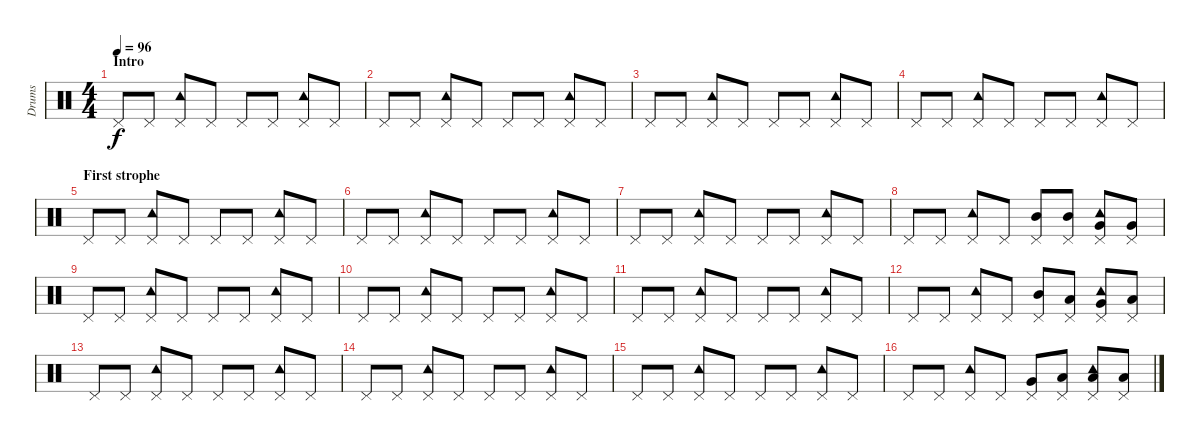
\track ("Drums" "Drums") {instrument percussion}
\staff {score}
\articulation defaults
\ts (4 4)
\section ("" "Intro")
\tempo 96
\clef neutral
\ks c "Pedal Hi-Hat (hit)".8{dy f} "Pedal Hi-Hat (hit)".8
("Pedal Hi-Hat (hit)" "Tambourine (hit)").8 "Pedal Hi-Hat (hit)".8 "Pedal Hi-Hat (hit)".8 "Pedal Hi-Hat (hit)".8 ("Pedal Hi-Hat (hit)" "Tambourine (hit)").8 "Pedal Hi-Hat (hit)".8 |
"Pedal Hi-Hat (hit)".8 "Pedal Hi-Hat (hit)".8 ("Pedal Hi-Hat (hit)" "Tambourine (hit)").8 "Pedal Hi-Hat (hit)".8 "Pedal Hi-Hat (hit)".8 "Pedal Hi-Hat (hit)".8 ("Pedal Hi-Hat (hit)" "Tambourine (hit)").8 "Pedal Hi-Hat (hit)".8 |
"Pedal Hi-Hat (hit)".8 "Pedal Hi-Hat (hit)".8 ("Pedal Hi-Hat (hit)" "Tambourine (hit)").8 "Pedal Hi-Hat (hit)".8 "Pedal Hi-Hat (hit)".8 "Pedal Hi-Hat (hit)".8 ("Pedal Hi-Hat (hit)" "Tambourine (hit)").8 "Pedal Hi-Hat (hit)".8 |
"Pedal Hi-Hat (hit)".8 "Pedal Hi-Hat (hit)".8 ("Pedal Hi-Hat (hit)" "Tambourine (hit)").8 "Pedal Hi-Hat (hit)".8 "Pedal Hi-Hat (hit)".8 "Pedal Hi-Hat (hit)".8 ("Pedal Hi-Hat (hit)" "Tambourine (hit)").8 "Pedal Hi-Hat (hit)".8 |
\section ("" "First strophe")
"Pedal Hi-Hat (hit)".8 "Pedal Hi-Hat (hit)".8 ("Pedal Hi-Hat (hit)" "Tambourine (hit)").8 "Pedal Hi-Hat (hit)".8 "Pedal Hi-Hat (hit)".8 "Pedal Hi-Hat (hit)".8 ("Pedal Hi-Hat (hit)" "Tambourine (hit)").8 "Pedal Hi-Hat (hit)".8 |
"Pedal Hi-Hat (hit)".8 "Pedal Hi-Hat (hit)".8 ("Pedal Hi-Hat (hit)" "Tambourine (hit)").8 "Pedal Hi-Hat (hit)".8 "Pedal Hi-Hat (hit)".8 "Pedal Hi-Hat (hit)".8 ("Pedal Hi-Hat (hit)" "Tambourine (hit)").8 "Pedal Hi-Hat (hit)".8 |
"Pedal Hi-Hat (hit)".8 "Pedal Hi-Hat (hit)".8 ("Pedal Hi-Hat (hit)" "Tambourine (hit)").8 "Pedal Hi-Hat (hit)".8 "Pedal Hi-Hat (hit)".8 "Pedal Hi-Hat (hit)".8 ("Pedal Hi-Hat (hit)" "Tambourine (hit)").8 "Pedal Hi-Hat (hit)".8 |
"Pedal Hi-Hat (hit)".8 "Pedal Hi-Hat (hit)".8 ("Pedal Hi-Hat (hit)" "Tambourine (hit)").8 "Pedal Hi-Hat (hit)".8 ("Pedal Hi-Hat (hit)" "Mid Tom (hit)").8 ("Pedal Hi-Hat (hit)" "Mid Tom (hit)").8 ("Pedal Hi-Hat (hit)" "Tambourine (hit)" "Very Low Tom (hit)").8 ("Pedal Hi-Hat (hit)" "Very Low Tom (hit)").8 |
"Pedal Hi-Hat (hit)".8 "Pedal Hi-Hat (hit)".8 ("Pedal Hi-Hat (hit)" "Tambourine (hit)").8 "Pedal Hi-Hat (hit)".8 "Pedal Hi-Hat (hit)".8 "Pedal Hi-Hat (hit)".8 ("Pedal Hi-Hat (hit)" "Tambourine (hit)").8 "Pedal Hi-Hat (hit)".8 |
"Pedal Hi-Hat (hit)".8 "Pedal Hi-Hat (hit)".8 ("Pedal Hi-Hat (hit)" "Tambourine (hit)").8 "Pedal Hi-Hat (hit)".8 "Pedal Hi-Hat (hit)".8 "Pedal Hi-Hat (hit)".8 ("Pedal Hi-Hat (hit)" "Tambourine (hit)").8 "Pedal Hi-Hat (hit)".8 |
"Pedal Hi-Hat (hit)".8 "Pedal Hi-Hat (hit)".8 ("Pedal Hi-Hat (hit)" "Tambourine (hit)").8 "Pedal Hi-Hat (hit)".8 "Pedal Hi-Hat (hit)".8 "Pedal Hi-Hat (hit)".8 ("Pedal Hi-Hat (hit)" "Tambourine (hit)").8 "Pedal Hi-Hat (hit)".8 |
"Pedal Hi-Hat (hit)".8 "Pedal Hi-Hat (hit)".8 ("Pedal Hi-Hat (hit)" "Tambourine (hit)").8 "Pedal Hi-Hat (hit)".8 ("Pedal Hi-Hat (hit)" "Mid Tom (hit)").8 ("Pedal Hi-Hat (hit)" "Low Floor Tom (hit)").8 ("Pedal Hi-Hat (hit)" "Tambourine (hit)" "Very Low Tom (hit)").8 ("Pedal Hi-Hat (hit)" "Low Floor Tom (hit)").8 |
"Pedal Hi-Hat (hit)".8 "Pedal Hi-Hat (hit)".8 ("Pedal Hi-Hat (hit)" "Tambourine (hit)").8 "Pedal Hi-Hat (hit)".8 "Pedal Hi-Hat (hit)".8 "Pedal Hi-Hat (hit)".8 ("Pedal Hi-Hat (hit)" "Tambourine (hit)").8 "Pedal Hi-Hat (hit)".8 |
"Pedal Hi-Hat (hit)".8 "Pedal Hi-Hat (hit)".8 ("Pedal Hi-Hat (hit)" "Tambourine (hit)").8 "Pedal Hi-Hat (hit)".8 "Pedal Hi-Hat (hit)".8 "Pedal Hi-Hat (hit)".8 ("Pedal Hi-Hat (hit)" "Tambourine (hit)").8 "Pedal Hi-Hat (hit)".8 |
"Pedal Hi-Hat (hit)".8 "Pedal Hi-Hat (hit)".8 ("Pedal Hi-Hat (hit)" "Tambourine (hit)").8 "Pedal Hi-Hat (hit)".8 "Pedal Hi-Hat (hit)".8 "Pedal Hi-Hat (hit)".8 ("Pedal Hi-Hat (hit)" "Tambourine (hit)").8 "Pedal Hi-Hat (hit)".8 |
"Pedal Hi-Hat (hit)".8 "Pedal Hi-Hat (hit)".8 ("Pedal Hi-Hat (hit)" "Tambourine (hit)").8 "Pedal Hi-Hat (hit)".8 ("Pedal Hi-Hat (hit)" "Very Low Tom (hit)").8 ("Pedal Hi-Hat (hit)" "Low Tom (hit)").8 ("Pedal Hi-Hat (hit)" "Tambourine (hit)" "Low Tom (hit)").8 ("Pedal Hi-Hat (hit)" "Low Floor Tom (hit)").8
